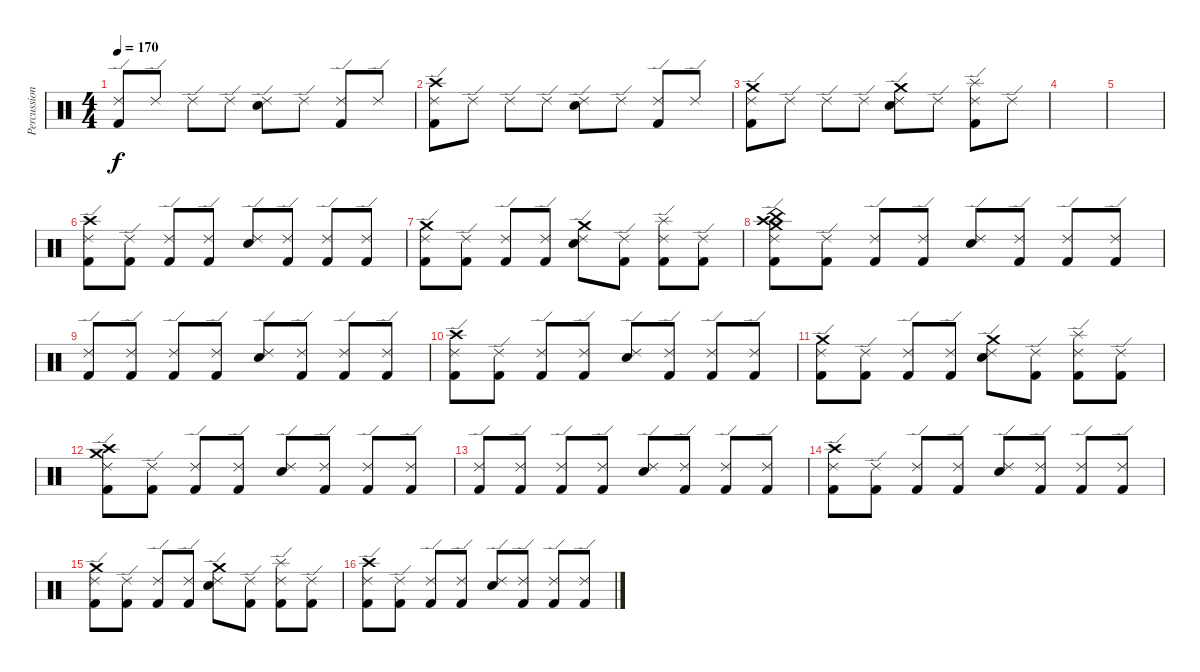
\track ("Percussion" "Percussion") {instrument percussion}
\staff {score}
\articulation defaults
\ts (4 4)
\tempo 170
\clef neutral
\ks c
("Kick (hit) 2" "Ride (edge) 2").8{dy f} "Ride (edge) 2".8 "Ride (edge) 2".8 "Ride (edge) 2".8 ("Snare (hit) 2" "Ride (edge) 2").8 "Ride (edge) 2".8 ("Kick (hit) 2" "Ride (edge) 2").8 "Ride (edge) 2".8 |
("Kick (hit) 2" "Crash high (hit)" "Ride (edge) 2").8 "Ride (edge) 2".8 "Ride (edge) 2".8 "Ride (edge) 2".8 ("Snare (hit) 2" "Ride (edge) 2").8 "Ride (edge) 2".8 ("Kick (hit) 2" "Ride (edge) 2").8 "Ride (edge) 2".8 |
("Crash medium (hit)" "Kick (hit) 2" "Ride (edge) 2").8 "Ride (edge) 2".8 "Ride (edge) 2".8 "Ride (edge) 2".8 ("Crash medium (hit)" "Snare (hit) 2" "Ride (edge) 2").8 "Ride (edge) 2".8 ("Splash (hit)" "Kick (hit) 2" "Ride (edge) 2").8 "Ride (edge) 2".8 |
|
|
("Kick (hit) 2" "Crash high (hit)" "Ride (edge) 2").8 ("Kick (hit) 2" "Ride (edge) 2").8 ("Kick (hit) 2" "Ride (edge) 2").8 ("Kick (hit) 2" "Ride (edge) 2").8 ("Snare (hit) 2" "Ride (edge) 2").8 ("Kick (hit) 2" "Ride (edge) 2").8 ("Kick (hit) 2" "Ride (edge) 2").8 ("Kick (hit) 2" "Ride (edge) 2").8 |
("Crash medium (hit)" "Kick (hit) 2" "Ride (edge) 2").8 ("Kick (hit) 2" "Ride (edge) 2").8 ("Kick (hit) 2" "Ride (edge) 2").8 ("Kick (hit) 2" "Ride (edge) 2").8 ("Crash medium (hit)" "Snare (hit) 2" "Ride (edge) 2").8 ("Kick (hit) 2" "Ride (edge) 2").8 ("Splash (hit)" "Kick (hit) 2" "Ride (edge) 2").8 ("Kick (hit) 2" "Ride (edge) 2").8 |
("China (hit)" "Crash medium (hit)" "Kick (hit) 2" "Crash high (hit)" "Ride (edge) 2").8 ("Kick (hit) 2" "Ride (edge) 2").8 ("Kick (hit) 2" "Ride (edge) 2").8 ("Kick (hit) 2" "Ride (edge) 2").8 ("Snare (hit) 2" "Ride (edge) 2").8 ("Kick (hit) 2" "Ride (edge) 2").8 ("Kick (hit) 2" "Ride (edge) 2").8 ("Kick (hit) 2" "Ride (edge) 2").8 |
("Kick (hit) 2" "Ride (edge) 2").8 ("Kick (hit) 2" "Ride (edge) 2").8 ("Kick (hit) 2" "Ride (edge) 2").8 ("Kick (hit) 2" "Ride (edge) 2").8 ("Snare (hit) 2" "Ride (edge) 2").8 ("Kick (hit) 2" "Ride (edge) 2").8 ("Kick (hit) 2" "Ride (edge) 2").8 ("Kick (hit) 2" "Ride (edge) 2").8 |
("Kick (hit) 2" "Crash high (hit)" "Ride (edge) 2").8 ("Kick (hit) 2" "Ride (edge) 2").8 ("Kick (hit) 2" "Ride (edge) 2").8 ("Kick (hit) 2" "Ride (edge) 2").8 ("Snare (hit) 2" "Ride (edge) 2").8 ("Kick (hit) 2" "Ride (edge) 2").8 ("Kick (hit) 2" "Ride (edge) 2").8 ("Kick (hit) 2" "Ride (edge) 2").8 |
("Crash medium (hit)" "Kick (hit) 2" "Ride (edge) 2").8 ("Kick (hit) 2" "Ride (edge) 2").8 ("Kick (hit) 2" "Ride (edge) 2").8 ("Kick (hit) 2" "Ride (edge) 2").8 ("Crash medium (hit)" "Snare (hit) 2" "Ride (edge) 2").8 ("Kick (hit) 2" "Ride (edge) 2").8 ("Splash (hit)" "Kick (hit) 2" "Ride (edge) 2").8 ("Kick (hit) 2" "Ride (edge) 2").8 |
("Crash medium (hit)" "Kick (hit) 2" "Crash high (hit)" "Ride (edge) 2").8 ("Kick (hit) 2" "Ride (edge) 2").8 ("Kick (hit) 2" "Ride (edge) 2").8 ("Kick (hit) 2" "Ride (edge) 2").8 ("Snare (hit) 2" "Ride (edge) 2").8 ("Kick (hit) 2" "Ride (edge) 2").8 ("Kick (hit) 2" "Ride (edge) 2").8 ("Kick (hit) 2" "Ride (edge) 2").8 |
("Kick (hit) 2" "Ride (edge) 2").8 ("Kick (hit) 2" "Ride (edge) 2").8 ("Kick (hit) 2" "Ride (edge) 2").8 ("Kick (hit) 2" "Ride (edge) 2").8 ("Snare (hit) 2" "Ride (edge) 2").8 ("Kick (hit) 2" "Ride (edge) 2").8 ("Kick (hit) 2" "Ride (edge) 2").8 ("Kick (hit) 2" "Ride (edge) 2").8 |
("Kick (hit) 2" "Crash high (hit)" "Ride (edge) 2").8 ("Kick (hit) 2" "Ride (edge) 2").8 ("Kick (hit) 2" "Ride (edge) 2").8 ("Kick (hit) 2" "Ride (edge) 2").8 ("Snare (hit) 2" "Ride (edge) 2").8 ("Kick (hit) 2" "Ride (edge) 2").8 ("Kick (hit) 2" "Ride (edge) 2").8 ("Kick (hit) 2" "Ride (edge) 2").8 |
("Crash medium (hit)" "Kick (hit) 2" "Ride (edge) 2").8 ("Kick (hit) 2" "Ride (edge) 2").8 ("Kick (hit) 2" "Ride (edge) 2").8 ("Kick (hit) 2" "Ride (edge) 2").8 ("Crash medium (hit)" "Snare (hit) 2" "Ride (edge) 2").8 ("Kick (hit) 2" "Ride (edge) 2").8 ("Splash (hit)" "Kick (hit) 2" "Ride (edge) 2").8 ("Kick (hit) 2" "Ride (edge) 2").8 |
("Kick (hit) 2" "Crash high (hit)" "Ride (edge) 2").8 ("Kick (hit) 2" "Ride (edge) 2").8 ("Kick (hit) 2" "Ride (edge) 2").8 ("Kick (hit) 2" "Ride (edge) 2").8 ("Snare (hit) 2" "Ride (edge) 2").8 ("Kick (hit) 2" "Ride (edge) 2").8 ("Kick (hit) 2" "Ride (edge) 2").8 ("Kick (hit) 2" "Ride (edge) 2").8
